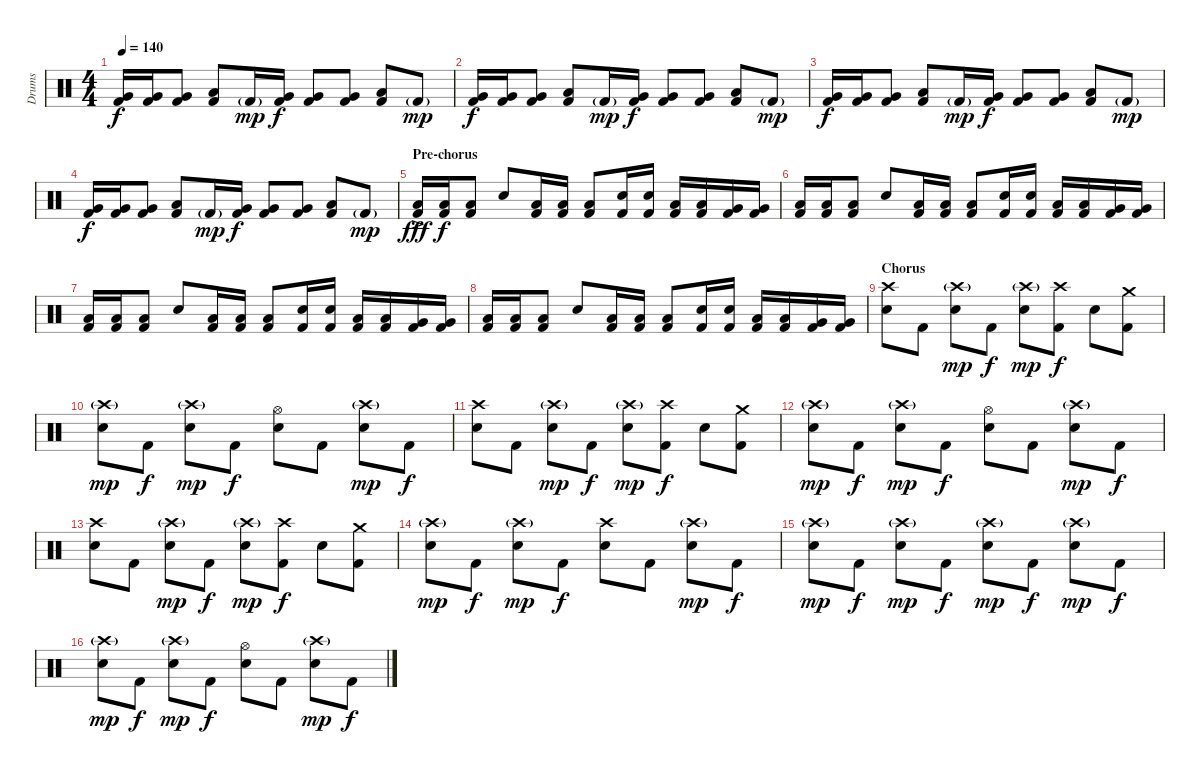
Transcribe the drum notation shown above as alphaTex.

\track ("Drums" "Drums") {instrument percussion}
\staff {score}
\articulation defaults
\ts (4 4)
\tempo 140
\clef neutral
\ks c
("Kick (hit) 2" "Very Low Tom (hit)").16{dy f} ("Kick (hit) 2" "Very Low Tom (hit)").16 ("Kick (hit) 2" "Very Low Tom (hit)").8 ("Kick (hit) 2" "Low Floor Tom (hit)").8 "Kick (hit) 2"{g}.16{dy mp} ("Kick (hit) 2" "Very Low Tom (hit)").16{dy f} ("Kick (hit) 2" "Very Low Tom (hit)").8 ("Kick (hit) 2" "Very Low Tom (hit)").8 ("Kick (hit) 2" "Low Floor Tom (hit)").8 "Kick (hit) 2"{g}.8{dy mp} |
("Kick (hit) 2" "Very Low Tom (hit)").16{dy f} ("Kick (hit) 2" "Very Low Tom (hit)").16 ("Kick (hit) 2" "Very Low Tom (hit)").8 ("Kick (hit) 2" "Low Floor Tom (hit)").8 "Kick (hit) 2"{g}.16{dy mp} ("Kick (hit) 2" "Very Low Tom (hit)").16{dy f} ("Kick (hit) 2" "Very Low Tom (hit)").8 ("Kick (hit) 2" "Very Low Tom (hit)").8 ("Kick (hit) 2" "Low Floor Tom (hit)").8 "Kick (hit) 2"{g}.8{dy mp} |
("Kick (hit) 2" "Very Low Tom (hit)").16{dy f} ("Kick (hit) 2" "Very Low Tom (hit)").16 ("Kick (hit) 2" "Very Low Tom (hit)").8 ("Kick (hit) 2" "Low Floor Tom (hit)").8 "Kick (hit) 2"{g}.16{dy mp} ("Kick (hit) 2" "Very Low Tom (hit)").16{dy f} ("Kick (hit) 2" "Very Low Tom (hit)").8 ("Kick (hit) 2" "Very Low Tom (hit)").8 ("Kick (hit) 2" "Low Floor Tom (hit)").8 "Kick (hit) 2"{g}.8{dy mp} |
("Kick (hit) 2" "Very Low Tom (hit)").16{dy f} ("Kick (hit) 2" "Very Low Tom (hit)").16 ("Kick (hit) 2" "Very Low Tom (hit)").8 ("Kick (hit) 2" "Low Floor Tom (hit)").8 "Kick (hit) 2"{g}.16{dy mp} ("Kick (hit) 2" "Very Low Tom (hit)").16{dy f} ("Kick (hit) 2" "Very Low Tom (hit)").8 ("Kick (hit) 2" "Very Low Tom (hit)").8 ("Kick (hit) 2" "Low Floor Tom (hit)").8 "Kick (hit) 2"{g}.8{dy mp} |
\section ("" "Pre-chorus")
("Kick (hit) 2"{ac} "Low Tom (hit)").16{dy fff volume 12} ("Kick (hit) 2" "Low Tom (hit)").16{dy f} ("Kick (hit) 2" "Low Tom (hit)").8 "Electric Snare (hit)".8 ("Kick (hit) 2" "Low Tom (hit)").16 ("Kick (hit) 2" "Low Tom (hit)").16 ("Kick (hit) 2" "Low Tom (hit)").8 ("Kick (hit) 2" "Electric Snare (hit)").16 ("Kick (hit) 2" "Electric Snare (hit)").16 ("Kick (hit) 2" "Low Tom (hit)").16 ("Kick (hit) 2" "Low Tom (hit)").16 ("Kick (hit) 2" "Very Low Tom (hit)").16 ("Kick (hit) 2" "Very Low Tom (hit)").16 |
("Kick (hit) 2" "Low Tom (hit)").16 ("Kick (hit) 2" "Low Tom (hit)").16 ("Kick (hit) 2" "Low Tom (hit)").8 "Electric Snare (hit)".8 ("Kick (hit) 2" "Low Tom (hit)").16 ("Kick (hit) 2" "Low Tom (hit)").16 ("Kick (hit) 2" "Low Tom (hit)").8 ("Kick (hit) 2" "Electric Snare (hit)").16 ("Kick (hit) 2" "Electric Snare (hit)").16 ("Kick (hit) 2" "Low Tom (hit)").16 ("Kick (hit) 2" "Low Tom (hit)").16 ("Kick (hit) 2" "Very Low Tom (hit)").16 ("Kick (hit) 2" "Very Low Tom (hit)").16 |
("Kick (hit) 2" "Low Tom (hit)").16 ("Kick (hit) 2" "Low Tom (hit)").16 ("Kick (hit) 2" "Low Tom (hit)").8 "Electric Snare (hit)".8 ("Kick (hit) 2" "Low Tom (hit)").16 ("Kick (hit) 2" "Low Tom (hit)").16 ("Kick (hit) 2" "Low Tom (hit)").8 ("Kick (hit) 2" "Electric Snare (hit)").16 ("Kick (hit) 2" "Electric Snare (hit)").16 ("Kick (hit) 2" "Low Tom (hit)").16 ("Kick (hit) 2" "Low Tom (hit)").16 ("Kick (hit) 2" "Very Low Tom (hit)").16 ("Kick (hit) 2" "Very Low Tom (hit)").16 |
("Kick (hit) 2" "Low Tom (hit)").16 ("Kick (hit) 2" "Low Tom (hit)").16 ("Kick (hit) 2" "Low Tom (hit)").8 "Electric Snare (hit)".8 ("Kick (hit) 2" "Low Tom (hit)").16 ("Kick (hit) 2" "Low Tom (hit)").16 ("Kick (hit) 2" "Low Tom (hit)").8 ("Kick (hit) 2" "Electric Snare (hit)").16 ("Kick (hit) 2" "Electric Snare (hit)").16 ("Kick (hit) 2" "Low Tom (hit)").16 ("Kick (hit) 2" "Low Tom (hit)").16 ("Kick (hit) 2" "Very Low Tom (hit)").16 ("Kick (hit) 2" "Very Low Tom (hit)").16 |
\section ("" "Chorus")
("Electric Snare (hit)" "Crash high (hit)").8 "Kick (hit) 2".8 ("Electric Snare (hit)" "Crash high (hit)"{g}).8{dy mp} "Kick (hit) 2".8{dy f} ("Electric Snare (hit)" "Crash high (hit)"{g}).8{dy mp} ("Kick (hit) 2" "Crash high (hit)").8{dy f} "Electric Snare (hit)".8 ("Kick (hit) 2" "Crash medium (hit)").8 |
("Electric Snare (hit)" "Crash high (hit)"{g}).8{dy mp} "Kick (hit) 2".8{dy f} ("Electric Snare (hit)" "Crash high (hit)"{g}).8{dy mp} "Kick (hit) 2".8{dy f} ("Electric Snare (hit)" "Hi-Hat (open)").8 "Kick (hit) 2".8 ("Electric Snare (hit)" "Crash high (hit)"{g}).8{dy mp} "Kick (hit) 2".8{dy f} |
("Electric Snare (hit)" "Crash high (hit)").8 "Kick (hit) 2".8 ("Electric Snare (hit)" "Crash high (hit)"{g}).8{dy mp} "Kick (hit) 2".8{dy f} ("Electric Snare (hit)" "Crash high (hit)"{g}).8{dy mp} ("Kick (hit) 2" "Crash high (hit)").8{dy f} "Electric Snare (hit)".8 ("Kick (hit) 2" "Crash medium (hit)").8 |
("Electric Snare (hit)" "Crash high (hit)"{g}).8{dy mp} "Kick (hit) 2".8{dy f} ("Electric Snare (hit)" "Crash high (hit)"{g}).8{dy mp} "Kick (hit) 2".8{dy f} ("Electric Snare (hit)" "Hi-Hat (open)").8 "Kick (hit) 2".8 ("Electric Snare (hit)" "Crash high (hit)"{g}).8{dy mp} "Kick (hit) 2".8{dy f} |
("Electric Snare (hit)" "Crash high (hit)").8 "Kick (hit) 2".8 ("Electric Snare (hit)" "Crash high (hit)"{g}).8{dy mp} "Kick (hit) 2".8{dy f} ("Electric Snare (hit)" "Crash high (hit)"{g}).8{dy mp} ("Kick (hit) 2" "Crash high (hit)").8{dy f} "Electric Snare (hit)".8 ("Kick (hit) 2" "Crash medium (hit)").8 |
("Electric Snare (hit)" "Crash high (hit)"{g}).8{dy mp} "Kick (hit) 2".8{dy f} ("Electric Snare (hit)" "Crash high (hit)"{g}).8{dy mp} "Kick (hit) 2".8{dy f} ("Electric Snare (hit)" "Crash high (hit)").8 "Kick (hit) 2".8 ("Electric Snare (hit)" "Crash high (hit)"{g}).8{dy mp} "Kick (hit) 2".8{dy f} |
("Electric Snare (hit)" "Crash high (hit)"{g}).8{dy mp} "Kick (hit) 2".8{dy f} ("Electric Snare (hit)" "Crash high (hit)"{g}).8{dy mp} "Kick (hit) 2".8{dy f} ("Electric Snare (hit)" "Crash high (hit)"{g}).8{dy mp} "Kick (hit) 2".8{dy f} ("Electric Snare (hit)" "Crash high (hit)"{g}).8{dy mp} "Kick (hit) 2".8{dy f} |
("Electric Snare (hit)" "Crash high (hit)"{g}).8{dy mp} "Kick (hit) 2".8{dy f} ("Electric Snare (hit)" "Crash high (hit)"{g}).8{dy mp} "Kick (hit) 2".8{dy f} ("Electric Snare (hit)" "Hi-Hat (open)").8 "Kick (hit) 2".8 ("Electric Snare (hit)" "Crash high (hit)"{g}).8{dy mp} "Kick (hit) 2".8{dy f}
